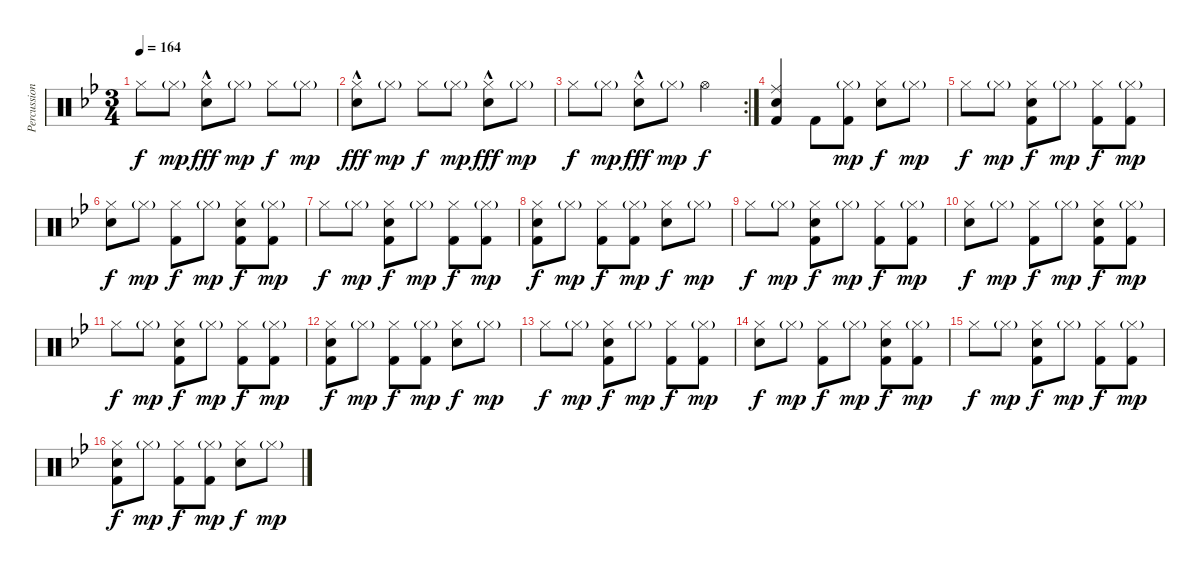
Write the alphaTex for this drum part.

\track ("Percussion" "Percussion") {instrument percussion}
\staff {score}
\articulation defaults
\ts (3 4)
\tempo 164
\clef neutral
\ks bb "Hi-Hat (closed)".8{dy f} "Hi-Hat (closed)"{g}.8{dy mp}
("Hi-Hat (closed)" "Electric Snare (hit)"{hac}).8{dy fff} "Hi-Hat (closed)"{g}.8{dy mp} "Hi-Hat (closed)".8{dy f} "Hi-Hat (closed)"{g}.8{dy mp} |
("Hi-Hat (closed)" "Electric Snare (hit)"{hac}).8{dy fff} "Hi-Hat (closed)"{g}.8{dy mp} "Hi-Hat (closed)".8{dy f} "Hi-Hat (closed)"{g}.8{dy mp} ("Hi-Hat (closed)" "Electric Snare (hit)"{hac}).8{dy fff} "Hi-Hat (closed)"{g}.8{dy mp} |
\rc 2 "Hi-Hat (closed)".8{dy f} "Hi-Hat (closed)"{g}.8{dy mp}
("Hi-Hat (closed)" "Electric Snare (hit)"{hac}).8{dy fff} "Hi-Hat (closed)"{g}.8{dy mp} "Hi-Hat (open)".4{dy f} |
("Ride (middle)" "Electric Snare (hit)" "Kick (hit) 2").4 "Kick (hit) 2".8 ("Hi-Hat (closed)"{g} "Kick (hit) 2").8{dy mp} ("Hi-Hat (closed)" "Electric Snare (hit)").8{dy f} "Hi-Hat (closed)"{g}.8{dy mp} |
"Hi-Hat (closed)".8{dy f} "Hi-Hat (closed)"{g}.8{dy mp} ("Hi-Hat (closed)" "Electric Snare (hit)" "Kick (hit) 2").8{dy f} "Hi-Hat (closed)"{g}.8{dy mp} ("Hi-Hat (closed)" "Kick (hit) 2").8{dy f} ("Hi-Hat (closed)"{g} "Kick (hit) 2").8{dy mp} |
("Hi-Hat (closed)" "Electric Snare (hit)").8{dy f} "Hi-Hat (closed)"{g}.8{dy mp} ("Hi-Hat (closed)" "Kick (hit) 2").8{dy f} "Hi-Hat (closed)"{g}.8{dy mp} ("Hi-Hat (closed)" "Electric Snare (hit)" "Kick (hit) 2").8{dy f} ("Hi-Hat (closed)"{g} "Kick (hit) 2").8{dy mp} |
"Hi-Hat (closed)".8{dy f} "Hi-Hat (closed)"{g}.8{dy mp} ("Hi-Hat (closed)" "Electric Snare (hit)" "Kick (hit) 2").8{dy f} "Hi-Hat (closed)"{g}.8{dy mp} ("Hi-Hat (closed)" "Kick (hit) 2").8{dy f} ("Hi-Hat (closed)"{g} "Kick (hit) 2").8{dy mp} |
("Hi-Hat (closed)" "Electric Snare (hit)" "Kick (hit) 2").8{dy f} "Hi-Hat (closed)"{g}.8{dy mp} ("Hi-Hat (closed)" "Kick (hit) 2").8{dy f} ("Hi-Hat (closed)"{g} "Kick (hit) 2").8{dy mp} ("Hi-Hat (closed)" "Electric Snare (hit)").8{dy f} "Hi-Hat (closed)"{g}.8{dy mp} |
"Hi-Hat (closed)".8{dy f} "Hi-Hat (closed)"{g}.8{dy mp} ("Hi-Hat (closed)" "Electric Snare (hit)" "Kick (hit) 2").8{dy f} "Hi-Hat (closed)"{g}.8{dy mp} ("Hi-Hat (closed)" "Kick (hit) 2").8{dy f} ("Hi-Hat (closed)"{g} "Kick (hit) 2").8{dy mp} |
("Hi-Hat (closed)" "Electric Snare (hit)").8{dy f} "Hi-Hat (closed)"{g}.8{dy mp} ("Hi-Hat (closed)" "Kick (hit) 2").8{dy f} "Hi-Hat (closed)"{g}.8{dy mp} ("Hi-Hat (closed)" "Electric Snare (hit)" "Kick (hit) 2").8{dy f} ("Hi-Hat (closed)"{g} "Kick (hit) 2").8{dy mp} |
"Hi-Hat (closed)".8{dy f} "Hi-Hat (closed)"{g}.8{dy mp} ("Hi-Hat (closed)" "Electric Snare (hit)" "Kick (hit) 2").8{dy f} "Hi-Hat (closed)"{g}.8{dy mp} ("Hi-Hat (closed)" "Kick (hit) 2").8{dy f} ("Hi-Hat (closed)"{g} "Kick (hit) 2").8{dy mp} |
("Hi-Hat (closed)" "Electric Snare (hit)" "Kick (hit) 2").8{dy f} "Hi-Hat (closed)"{g}.8{dy mp} ("Hi-Hat (closed)" "Kick (hit) 2").8{dy f} ("Hi-Hat (closed)"{g} "Kick (hit) 2").8{dy mp} ("Hi-Hat (closed)" "Electric Snare (hit)").8{dy f} "Hi-Hat (closed)"{g}.8{dy mp} |
"Hi-Hat (closed)".8{dy f} "Hi-Hat (closed)"{g}.8{dy mp} ("Hi-Hat (closed)" "Electric Snare (hit)" "Kick (hit) 2").8{dy f} "Hi-Hat (closed)"{g}.8{dy mp} ("Hi-Hat (closed)" "Kick (hit) 2").8{dy f} ("Hi-Hat (closed)"{g} "Kick (hit) 2").8{dy mp} |
("Hi-Hat (closed)" "Electric Snare (hit)").8{dy f} "Hi-Hat (closed)"{g}.8{dy mp} ("Hi-Hat (closed)" "Kick (hit) 2").8{dy f} "Hi-Hat (closed)"{g}.8{dy mp} ("Hi-Hat (closed)" "Electric Snare (hit)" "Kick (hit) 2").8{dy f} ("Hi-Hat (closed)"{g} "Kick (hit) 2").8{dy mp} |
"Hi-Hat (closed)".8{dy f} "Hi-Hat (closed)"{g}.8{dy mp} ("Hi-Hat (closed)" "Electric Snare (hit)" "Kick (hit) 2").8{dy f} "Hi-Hat (closed)"{g}.8{dy mp} ("Hi-Hat (closed)" "Kick (hit) 2").8{dy f} ("Hi-Hat (closed)"{g} "Kick (hit) 2").8{dy mp} |
("Hi-Hat (closed)" "Electric Snare (hit)" "Kick (hit) 2").8{dy f} "Hi-Hat (closed)"{g}.8{dy mp} ("Hi-Hat (closed)" "Kick (hit) 2").8{dy f} ("Hi-Hat (closed)"{g} "Kick (hit) 2").8{dy mp} ("Hi-Hat (closed)" "Electric Snare (hit)").8{dy f} "Hi-Hat (closed)"{g}.8{dy mp}
